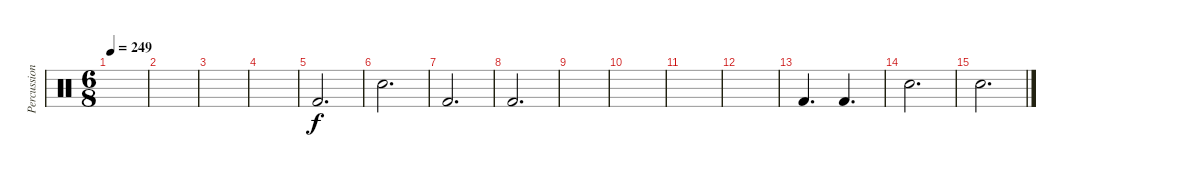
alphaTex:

\track ("Percussion" "Percussion") {instrument percussion}
\staff {score}
\articulation defaults
\ts (6 8)
\tempo 249
\clef neutral
\ks c
|
|
|
|
"Kick (hit) 2".2{d} |
"Snare (hit) 2".2{d} |
"Kick (hit) 2".2{d} |
"Kick (hit) 2".2{d} |
|
|
|
|
"Kick (hit) 2".4{d} "Kick (hit) 2".4{d} |
"Snare (hit) 2".2{d} |
"Snare (hit) 2".2{d}
